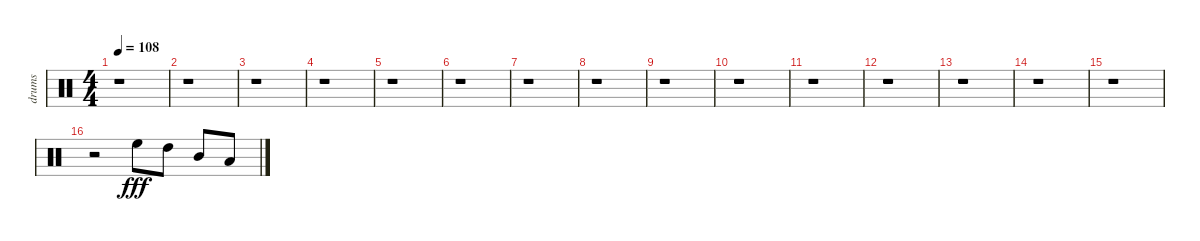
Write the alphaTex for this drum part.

\track ("drums" "drums") {instrument percussion}
\staff {score}
\articulation defaults
\ts (4 4)
\tempo 108
\clef neutral
\ks c
r.1{dy fff} |
r.1 |
r.1 |
r.1 |
r.1 |
r.1 |
r.1 |
r.1 |
r.1 |
r.1 |
r.1 |
r.1 |
r.1 |
r.1 |
r.1 |
r.2 "High Floor Tom (hit)".8 "High Tom (hit)".8 "Mid Tom (hit)".8 "Low Tom (hit)".8
